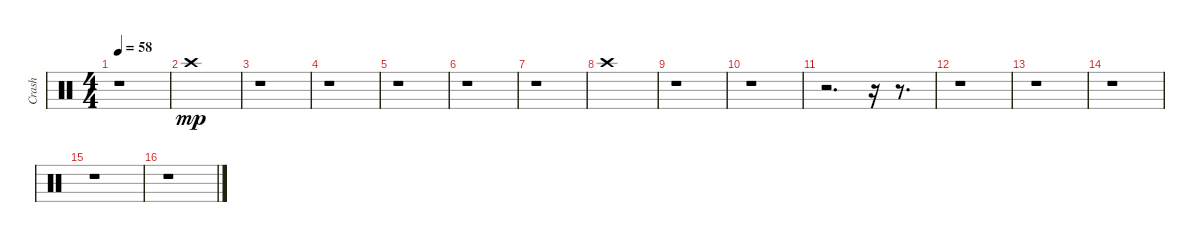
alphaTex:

\track ("Crash" "Crash") {instrument percussion}
\staff {score}
\articulation defaults
\ts (4 4)
\tempo 58
\clef neutral
\ks c
r.1{dy f} |
"Crash high (hit)".1{dy mp} |
r.1 |
r.1 |
r.1 |
r.1 |
r.1 |
"Crash high (hit)".1 |
r.1 |
r.1 |
r.2{d} r.16 r.8{d} |
r.1 |
r.1 |
r.1 |
r.1 |
r.1
